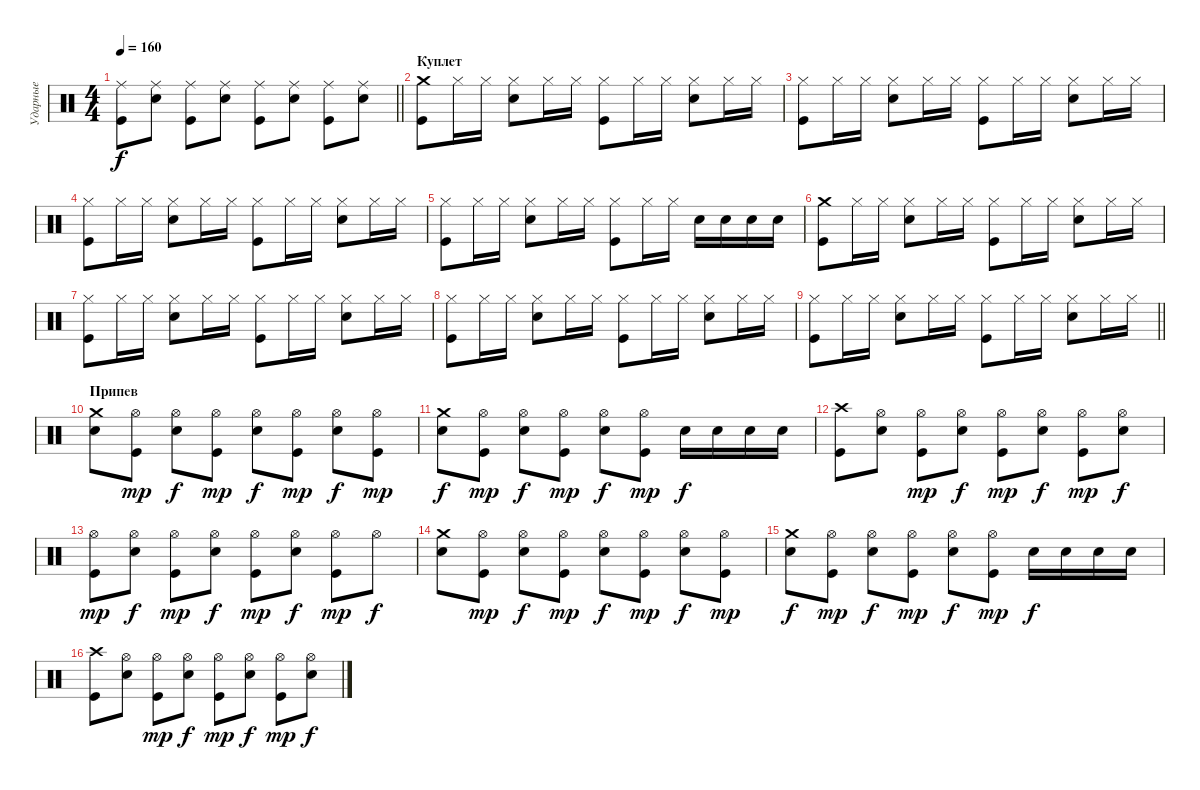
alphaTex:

\track ("Ударные" "Ударные") {instrument percussion}
\staff {score}
\articulation defaults
\ts (4 4)
\tempo 160
\clef neutral
\barLineRight lightlight
\ks c
("Ride (middle)" "Kick (hit)").8{dy f} ("Ride (middle)" "Electric Snare (hit)").8 ("Ride (middle)" "Kick (hit)").8 ("Ride (middle)" "Electric Snare (hit)").8 ("Ride (middle)" "Kick (hit)").8 ("Ride (middle)" "Electric Snare (hit)").8 ("Ride (middle)" "Kick (hit)").8 ("Ride (middle)" "Electric Snare (hit)").8 |
\section ("" "Куплет")
("Crash medium (hit)" "Kick (hit)").8 "Hi-Hat (closed)".16 "Hi-Hat (closed)".16 ("Hi-Hat (closed)" "Electric Snare (hit)").8 "Hi-Hat (closed)".16 "Hi-Hat (closed)".16 ("Hi-Hat (closed)" "Kick (hit)").8 "Hi-Hat (closed)".16 "Hi-Hat (closed)".16 ("Hi-Hat (closed)" "Electric Snare (hit)").8 "Hi-Hat (closed)".16 "Hi-Hat (closed)".16 |
("Hi-Hat (closed)" "Kick (hit)").8 "Hi-Hat (closed)".16 "Hi-Hat (closed)".16 ("Hi-Hat (closed)" "Electric Snare (hit)").8 "Hi-Hat (closed)".16 "Hi-Hat (closed)".16 ("Hi-Hat (closed)" "Kick (hit)").8 "Hi-Hat (closed)".16 "Hi-Hat (closed)".16 ("Hi-Hat (closed)" "Electric Snare (hit)").8 "Hi-Hat (closed)".16 "Hi-Hat (closed)".16 |
("Hi-Hat (closed)" "Kick (hit)").8 "Hi-Hat (closed)".16 "Hi-Hat (closed)".16 ("Hi-Hat (closed)" "Electric Snare (hit)").8 "Hi-Hat (closed)".16 "Hi-Hat (closed)".16 ("Hi-Hat (closed)" "Kick (hit)").8 "Hi-Hat (closed)".16 "Hi-Hat (closed)".16 ("Hi-Hat (closed)" "Electric Snare (hit)").8 "Hi-Hat (closed)".16 "Hi-Hat (closed)".16 |
("Hi-Hat (closed)" "Kick (hit)").8 "Hi-Hat (closed)".16 "Hi-Hat (closed)".16 ("Hi-Hat (closed)" "Electric Snare (hit)").8 "Hi-Hat (closed)".16 "Hi-Hat (closed)".16 ("Hi-Hat (closed)" "Kick (hit)").8 "Hi-Hat (closed)".16 "Hi-Hat (closed)".16 "Electric Snare (hit)".16 "Electric Snare (hit)".16 "Electric Snare (hit)".16 "Electric Snare (hit)".16 |
("Crash medium (hit)" "Kick (hit)").8 "Hi-Hat (closed)".16 "Hi-Hat (closed)".16 ("Hi-Hat (closed)" "Electric Snare (hit)").8 "Hi-Hat (closed)".16 "Hi-Hat (closed)".16 ("Hi-Hat (closed)" "Kick (hit)").8 "Hi-Hat (closed)".16 "Hi-Hat (closed)".16 ("Hi-Hat (closed)" "Electric Snare (hit)").8 "Hi-Hat (closed)".16 "Hi-Hat (closed)".16 |
("Hi-Hat (closed)" "Kick (hit)").8 "Hi-Hat (closed)".16 "Hi-Hat (closed)".16 ("Hi-Hat (closed)" "Electric Snare (hit)").8 "Hi-Hat (closed)".16 "Hi-Hat (closed)".16 ("Hi-Hat (closed)" "Kick (hit)").8 "Hi-Hat (closed)".16 "Hi-Hat (closed)".16 ("Hi-Hat (closed)" "Electric Snare (hit)").8 "Hi-Hat (closed)".16 "Hi-Hat (closed)".16 |
("Hi-Hat (closed)" "Kick (hit)").8 "Hi-Hat (closed)".16 "Hi-Hat (closed)".16 ("Hi-Hat (closed)" "Electric Snare (hit)").8 "Hi-Hat (closed)".16 "Hi-Hat (closed)".16 ("Hi-Hat (closed)" "Kick (hit)").8 "Hi-Hat (closed)".16 "Hi-Hat (closed)".16 ("Hi-Hat (closed)" "Electric Snare (hit)").8 "Hi-Hat (closed)".16 "Hi-Hat (closed)".16 |
\barLineRight lightlight
("Hi-Hat (closed)" "Kick (hit)").8 "Hi-Hat (closed)".16 "Hi-Hat (closed)".16 ("Hi-Hat (closed)" "Electric Snare (hit)").8 "Hi-Hat (closed)".16 "Hi-Hat (closed)".16 ("Hi-Hat (closed)" "Kick (hit)").8 "Hi-Hat (closed)".16 "Hi-Hat (closed)".16 ("Hi-Hat (closed)" "Electric Snare (hit)").8 "Hi-Hat (closed)".16 "Hi-Hat (closed)".16 |
\section ("" "Припев")
("Crash medium (hit)" "Electric Snare (hit)").8 ("Hi-Hat (open)" "Kick (hit)").8{dy mp} ("Hi-Hat (open)" "Electric Snare (hit)").8{dy f} ("Hi-Hat (open)" "Kick (hit)").8{dy mp} ("Hi-Hat (open)" "Electric Snare (hit)").8{dy f} ("Hi-Hat (open)" "Kick (hit)").8{dy mp} ("Hi-Hat (open)" "Electric Snare (hit)").8{dy f} ("Hi-Hat (open)" "Kick (hit)").8{dy mp} |
("Crash medium (hit)" "Electric Snare (hit)").8{dy f} ("Hi-Hat (open)" "Kick (hit)").8{dy mp} ("Hi-Hat (open)" "Electric Snare (hit)").8{dy f} ("Hi-Hat (open)" "Kick (hit)").8{dy mp} ("Hi-Hat (open)" "Electric Snare (hit)").8{dy f} ("Hi-Hat (open)" "Kick (hit)").8{dy mp} "Electric Snare (hit)".16{dy f} "Electric Snare (hit)".16 "Electric Snare (hit)".16 "Electric Snare (hit)".16 |
("Crash high (hit)" "Kick (hit)").8 ("Hi-Hat (open)" "Electric Snare (hit)").8 ("Hi-Hat (open)" "Kick (hit)").8{dy mp} ("Hi-Hat (open)" "Electric Snare (hit)").8{dy f} ("Hi-Hat (open)" "Kick (hit)").8{dy mp} ("Hi-Hat (open)" "Electric Snare (hit)").8{dy f} ("Hi-Hat (open)" "Kick (hit)").8{dy mp} ("Hi-Hat (open)" "Electric Snare (hit)").8{dy f} |
("Hi-Hat (open)" "Kick (hit)").8{dy mp} ("Hi-Hat (open)" "Electric Snare (hit)").8{dy f} ("Hi-Hat (open)" "Kick (hit)").8{dy mp} ("Hi-Hat (open)" "Electric Snare (hit)").8{dy f} ("Hi-Hat (open)" "Kick (hit)").8{dy mp} ("Hi-Hat (open)" "Electric Snare (hit)").8{dy f} ("Hi-Hat (open)" "Kick (hit)").8{dy mp} "Hi-Hat (open)".8{dy f} |
("Crash medium (hit)" "Electric Snare (hit)").8 ("Hi-Hat (open)" "Kick (hit)").8{dy mp} ("Hi-Hat (open)" "Electric Snare (hit)").8{dy f} ("Hi-Hat (open)" "Kick (hit)").8{dy mp} ("Hi-Hat (open)" "Electric Snare (hit)").8{dy f} ("Hi-Hat (open)" "Kick (hit)").8{dy mp} ("Hi-Hat (open)" "Electric Snare (hit)").8{dy f} ("Hi-Hat (open)" "Kick (hit)").8{dy mp} |
("Crash medium (hit)" "Electric Snare (hit)").8{dy f} ("Hi-Hat (open)" "Kick (hit)").8{dy mp} ("Hi-Hat (open)" "Electric Snare (hit)").8{dy f} ("Hi-Hat (open)" "Kick (hit)").8{dy mp} ("Hi-Hat (open)" "Electric Snare (hit)").8{dy f} ("Hi-Hat (open)" "Kick (hit)").8{dy mp} "Electric Snare (hit)".16{dy f} "Electric Snare (hit)".16 "Electric Snare (hit)".16 "Electric Snare (hit)".16 |
("Crash high (hit)" "Kick (hit)").8 ("Hi-Hat (open)" "Electric Snare (hit)").8 ("Hi-Hat (open)" "Kick (hit)").8{dy mp} ("Hi-Hat (open)" "Electric Snare (hit)").8{dy f} ("Hi-Hat (open)" "Kick (hit)").8{dy mp} ("Hi-Hat (open)" "Electric Snare (hit)").8{dy f} ("Hi-Hat (open)" "Kick (hit)").8{dy mp} ("Hi-Hat (open)" "Electric Snare (hit)").8{dy f}
